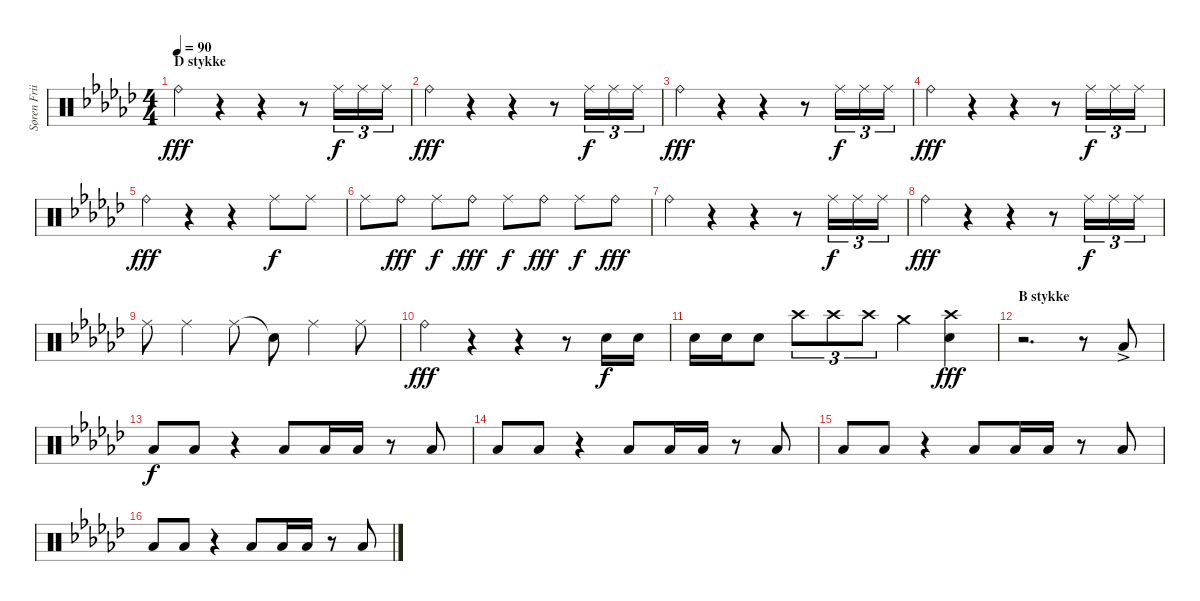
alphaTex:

\track ("Søren Friis (Drums)" "Søren Frii") {instrument percussion}
\staff {score}
\articulation defaults
\ts (4 4)
\section ("" "D stykke")
\tempo 90
\clef neutral
\ks gb "Ride (bell)".4{dy fff}
r.4 r.4 r.8 "Ride (middle)".16{tu (3 2) dy f} "Ride (middle)".16{tu (3 2)} "Ride (middle)".16{tu (3 2)} |
"Ride (bell)".4{dy fff} r.4 r.4 r.8 "Ride (middle)".16{tu (3 2) dy f} "Ride (middle)".16{tu (3 2)} "Ride (middle)".16{tu (3 2)} |
"Ride (bell)".4{dy fff} r.4 r.4 r.8 "Ride (middle)".16{tu (3 2) dy f} "Ride (middle)".16{tu (3 2)} "Ride (middle)".16{tu (3 2)} |
"Ride (bell)".4{dy fff} r.4 r.4 r.8 "Ride (middle)".16{tu (3 2) dy f} "Ride (middle)".16{tu (3 2)} "Ride (middle)".16{tu (3 2)} |
"Ride (bell)".4{dy fff} r.4 r.4 "Ride (middle)".8{dy f} "Ride (middle)".8 |
"Ride (middle)".8 "Ride (bell)".8{dy fff} "Ride (middle)".8{dy f} "Ride (bell)".8{dy fff} "Ride (middle)".8{dy f} "Ride (bell)".8{dy fff} "Ride (middle)".8{dy f} "Ride (bell)".8{dy fff} |
"Ride (bell)".4 r.4 r.4 r.8 "Ride (middle)".16{tu (3 2) dy f} "Ride (middle)".16{tu (3 2)} "Ride (middle)".16{tu (3 2)} |
"Ride (bell)".4{dy fff} r.4 r.4 r.8 "Ride (middle)".16{tu (3 2) dy f} "Ride (middle)".16{tu (3 2)} "Ride (middle)".16{tu (3 2)} |
"Ride (middle)".8 "Ride (middle)".4 "Ride (middle)".8 "Snare (hit)"{t}.8 "Ride (middle)".4 "Ride (middle)".8 |
"Ride (bell)".4{dy fff} r.4 r.4 r.8 "Snare (hit) 2".16{dy f} "Snare (hit) 2".16 |
"Snare (hit) 2".16 "Snare (hit) 2".16 "Snare (hit) 2".8 "Crash high (hit)".8{tu (3 2)} "Crash high (hit)".8{tu (3 2)} "Crash high (hit)".8{tu (3 2)} "Crash medium (hit)".4 ("Crash high (hit)" "Snare (hit) 2").4{dy fff} |
\section ("" "B stykke")
r.2{d} r.8 "Low Floor Tom (hit)"{ac}.8 |
"Low Floor Tom (hit)".8{dy f} "Low Floor Tom (hit)".8 r.4 "Low Floor Tom (hit)".8 "Low Floor Tom (hit)".16 "Low Floor Tom (hit)".16 r.8 "Low Floor Tom (hit)".8 |
"Low Floor Tom (hit)".8 "Low Floor Tom (hit)".8 r.4 "Low Floor Tom (hit)".8 "Low Floor Tom (hit)".16 "Low Floor Tom (hit)".16 r.8 "Low Floor Tom (hit)".8 |
"Low Floor Tom (hit)".8 "Low Floor Tom (hit)".8 r.4 "Low Floor Tom (hit)".8 "Low Floor Tom (hit)".16 "Low Floor Tom (hit)".16 r.8 "Low Floor Tom (hit)".8 |
"Low Floor Tom (hit)".8 "Low Floor Tom (hit)".8 r.4 "Low Floor Tom (hit)".8 "Low Floor Tom (hit)".16 "Low Floor Tom (hit)".16 r.8 "Low Floor Tom (hit)".8
